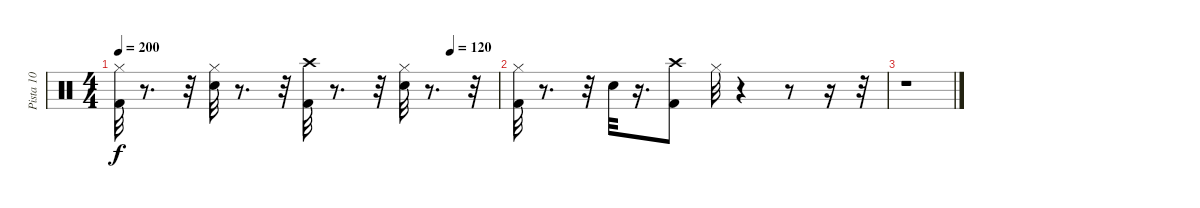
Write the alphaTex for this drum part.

\track ("Pista 10" "Pista 10") {instrument percussion}
\staff {score}
\articulation defaults
\ts (4 4)
\tempo 200
\tempo (120 0.875)
\clef neutral
\ks c
("Hi-Hat (closed)" "Kick (hit) 2").32{dy f} r.8{d} r.32 ("Snare (hit) 2" "Hi-Hat (closed)").32 r.8{d} r.32 ("Kick (hit) 2" "Crash high (hit)").32 r.8{d} r.32 ("Snare (hit) 2" "Hi-Hat (closed)").32 r.8{d} r.32 |
("Hi-Hat (closed)" "Kick (hit) 2").32 r.8{d} r.32 "Snare (hit) 2".32 r.16{d} ("Kick (hit) 2" "Crash high (hit)").8 "Hi-Hat (closed)".32 r.4 r.8 r.16 r.32 |
r.1
